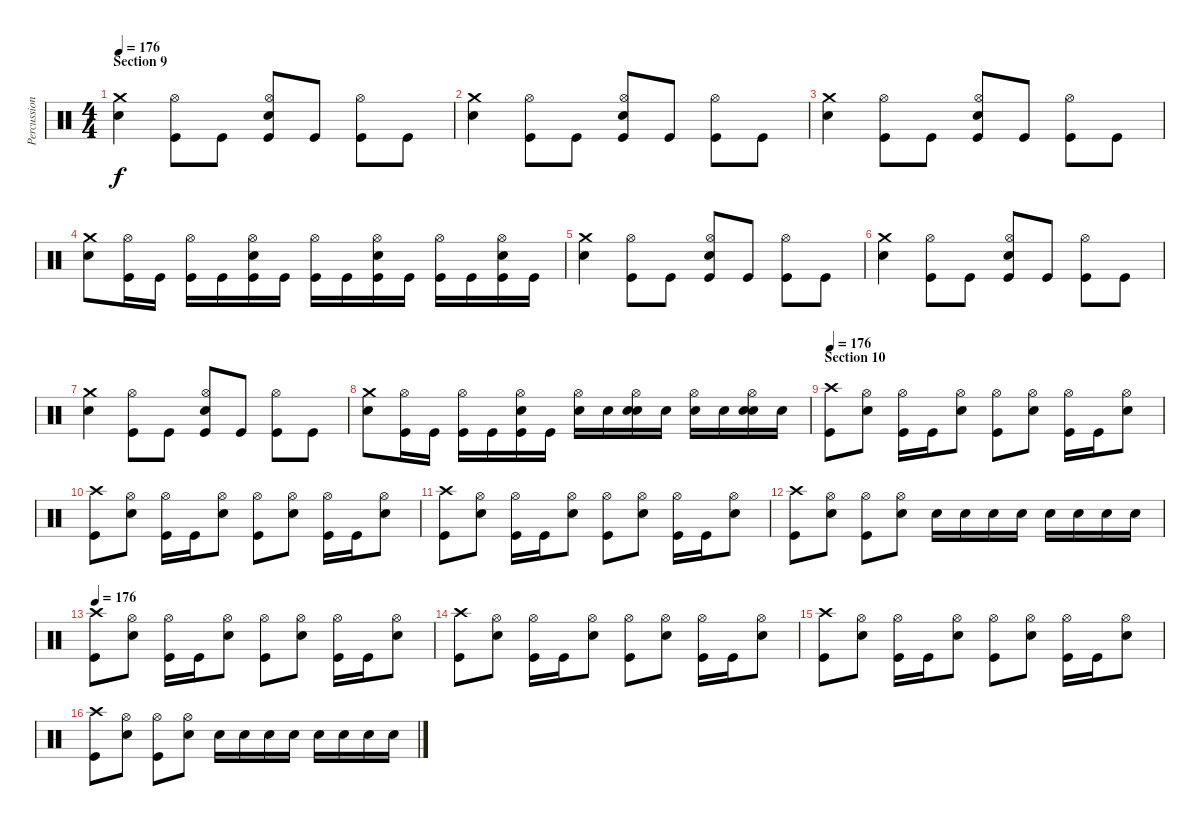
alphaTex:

\track ("Percussions" "Percussion") {instrument percussion}
\staff {score}
\articulation defaults
\ts (4 4)
\section ("" "Section 9")
\tempo 176
\clef neutral
\ks c
("Crash medium (hit)" "Electric Snare (hit)").4{dy f} ("Hi-Hat (open)" "Kick (hit)").8 "Kick (hit)".8 ("Hi-Hat (open)" "Electric Snare (hit)" "Kick (hit)").8 "Kick (hit)".8 ("Hi-Hat (open)" "Kick (hit)").8 "Kick (hit)".8 |
("Crash medium (hit)" "Electric Snare (hit)").4 ("Hi-Hat (open)" "Kick (hit)").8 "Kick (hit)".8 ("Hi-Hat (open)" "Electric Snare (hit)" "Kick (hit)").8 "Kick (hit)".8 ("Hi-Hat (open)" "Kick (hit)").8 "Kick (hit)".8 |
("Crash medium (hit)" "Electric Snare (hit)").4 ("Hi-Hat (open)" "Kick (hit)").8 "Kick (hit)".8 ("Hi-Hat (open)" "Electric Snare (hit)" "Kick (hit)").8 "Kick (hit)".8 ("Hi-Hat (open)" "Kick (hit)").8 "Kick (hit)".8 |
("Crash medium (hit)" "Electric Snare (hit)").8 ("Hi-Hat (open)" "Kick (hit)").16 "Kick (hit)".16 ("Hi-Hat (open)" "Kick (hit)").16 "Kick (hit)".16 ("Hi-Hat (open)" "Electric Snare (hit)" "Kick (hit)").16 "Kick (hit)".16 ("Hi-Hat (open)" "Kick (hit)").16 "Kick (hit)".16 ("Hi-Hat (open)" "Electric Snare (hit)" "Kick (hit)").16 "Kick (hit)".16 ("Hi-Hat (open)" "Kick (hit)").16 "Kick (hit)".16 ("Hi-Hat (open)" "Electric Snare (hit)" "Kick (hit)").16 "Kick (hit)".16 |
("Crash medium (hit)" "Electric Snare (hit)").4 ("Hi-Hat (open)" "Kick (hit)").8 "Kick (hit)".8 ("Hi-Hat (open)" "Electric Snare (hit)" "Kick (hit)").8 "Kick (hit)".8 ("Hi-Hat (open)" "Kick (hit)").8 "Kick (hit)".8 |
("Crash medium (hit)" "Electric Snare (hit)").4 ("Hi-Hat (open)" "Kick (hit)").8 "Kick (hit)".8 ("Hi-Hat (open)" "Electric Snare (hit)" "Kick (hit)").8 "Kick (hit)".8 ("Hi-Hat (open)" "Kick (hit)").8 "Kick (hit)".8 |
("Crash medium (hit)" "Electric Snare (hit)").4 ("Hi-Hat (open)" "Kick (hit)").8 "Kick (hit)".8 ("Hi-Hat (open)" "Electric Snare (hit)" "Kick (hit)").8 "Kick (hit)".8 ("Hi-Hat (open)" "Kick (hit)").8 "Kick (hit)".8 |
("Crash medium (hit)" "Electric Snare (hit)").8 ("Hi-Hat (open)" "Kick (hit)").16 "Kick (hit)".16 ("Hi-Hat (open)" "Kick (hit)").16 "Kick (hit)".16 ("Hi-Hat (open)" "Electric Snare (hit)" "Kick (hit)").16 "Kick (hit)".16 ("Hi-Hat (open)" "Electric Snare (hit)").16 "Electric Snare (hit)".16 ("Hi-Hat (open)" "Electric Snare (hit)" "Electric Snare (hit)").16 "Electric Snare (hit)".16 ("Hi-Hat (open)" "Electric Snare (hit)").16 "Electric Snare (hit)".16 ("Hi-Hat (open)" "Electric Snare (hit)" "Electric Snare (hit)").16 "Electric Snare (hit)".16 |
\section ("" "Section 10")
\tempo 176
("Crash high (hit)" "Kick (hit)").8 ("Hi-Hat (open)" "Electric Snare (hit)").8 ("Hi-Hat (open)" "Kick (hit)").16 "Kick (hit)".16 ("Hi-Hat (open)" "Electric Snare (hit)").8 ("Hi-Hat (open)" "Kick (hit)").8 ("Hi-Hat (open)" "Electric Snare (hit)").8 ("Hi-Hat (open)" "Kick (hit)").16 "Kick (hit)".16 ("Hi-Hat (open)" "Electric Snare (hit)").8 |
("Crash high (hit)" "Kick (hit)").8 ("Hi-Hat (open)" "Electric Snare (hit)").8 ("Hi-Hat (open)" "Kick (hit)").16 "Kick (hit)".16 ("Hi-Hat (open)" "Electric Snare (hit)").8 ("Hi-Hat (open)" "Kick (hit)").8 ("Hi-Hat (open)" "Electric Snare (hit)").8 ("Hi-Hat (open)" "Kick (hit)").16 "Kick (hit)".16 ("Hi-Hat (open)" "Electric Snare (hit)").8 |
("Crash high (hit)" "Kick (hit)").8 ("Hi-Hat (open)" "Electric Snare (hit)").8 ("Hi-Hat (open)" "Kick (hit)").16 "Kick (hit)".16 ("Hi-Hat (open)" "Electric Snare (hit)").8 ("Hi-Hat (open)" "Kick (hit)").8 ("Hi-Hat (open)" "Electric Snare (hit)").8 ("Hi-Hat (open)" "Kick (hit)").16 "Kick (hit)".16 ("Hi-Hat (open)" "Electric Snare (hit)").8 |
("Crash high (hit)" "Kick (hit)").8 ("Hi-Hat (open)" "Electric Snare (hit)").8 ("Hi-Hat (open)" "Kick (hit)").8 ("Hi-Hat (open)" "Electric Snare (hit)").8 "Electric Snare (hit)".16 "Electric Snare (hit)".16 "Electric Snare (hit)".16 "Electric Snare (hit)".16 "Electric Snare (hit)".16 "Electric Snare (hit)".16 "Electric Snare (hit)".16 "Electric Snare (hit)".16 |
\tempo 176
("Crash high (hit)" "Kick (hit)").8 ("Hi-Hat (open)" "Electric Snare (hit)").8 ("Hi-Hat (open)" "Kick (hit)").16 "Kick (hit)".16 ("Hi-Hat (open)" "Electric Snare (hit)").8 ("Hi-Hat (open)" "Kick (hit)").8 ("Hi-Hat (open)" "Electric Snare (hit)").8 ("Hi-Hat (open)" "Kick (hit)").16 "Kick (hit)".16 ("Hi-Hat (open)" "Electric Snare (hit)").8 |
("Crash high (hit)" "Kick (hit)").8 ("Hi-Hat (open)" "Electric Snare (hit)").8 ("Hi-Hat (open)" "Kick (hit)").16 "Kick (hit)".16 ("Hi-Hat (open)" "Electric Snare (hit)").8 ("Hi-Hat (open)" "Kick (hit)").8 ("Hi-Hat (open)" "Electric Snare (hit)").8 ("Hi-Hat (open)" "Kick (hit)").16 "Kick (hit)".16 ("Hi-Hat (open)" "Electric Snare (hit)").8 |
("Crash high (hit)" "Kick (hit)").8 ("Hi-Hat (open)" "Electric Snare (hit)").8 ("Hi-Hat (open)" "Kick (hit)").16 "Kick (hit)".16 ("Hi-Hat (open)" "Electric Snare (hit)").8 ("Hi-Hat (open)" "Kick (hit)").8 ("Hi-Hat (open)" "Electric Snare (hit)").8 ("Hi-Hat (open)" "Kick (hit)").16 "Kick (hit)".16 ("Hi-Hat (open)" "Electric Snare (hit)").8 |
("Crash high (hit)" "Kick (hit)").8 ("Hi-Hat (open)" "Electric Snare (hit)").8 ("Hi-Hat (open)" "Kick (hit)").8 ("Hi-Hat (open)" "Electric Snare (hit)").8 "Electric Snare (hit)".16 "Electric Snare (hit)".16 "Electric Snare (hit)".16 "Electric Snare (hit)".16 "Electric Snare (hit)".16 "Electric Snare (hit)".16 "Electric Snare (hit)".16 "Electric Snare (hit)".16
